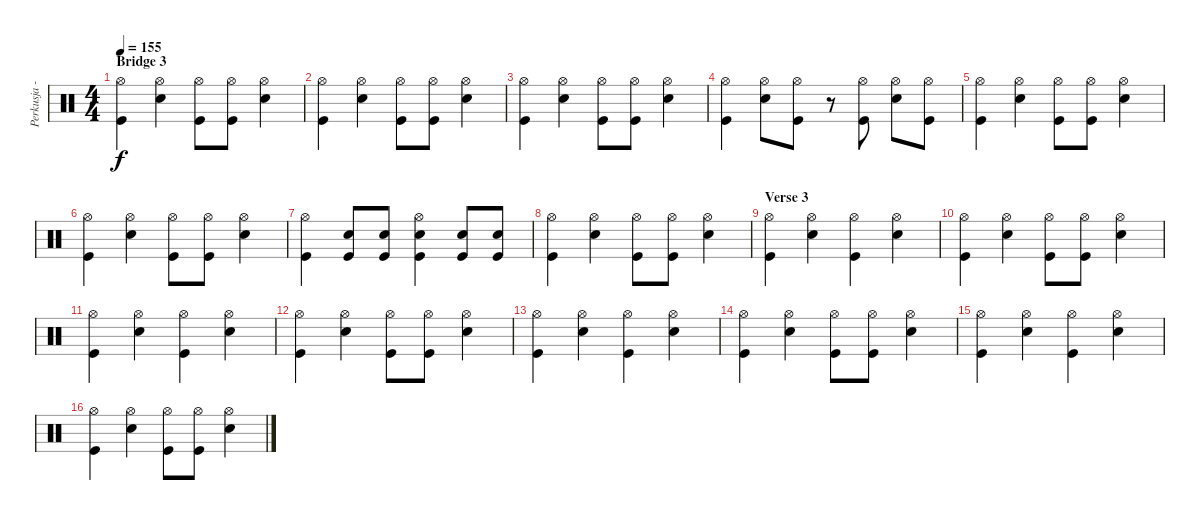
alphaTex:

\track ("Perkusja - Mielony" "Perkusja -") {instrument percussion}
\staff {score}
\articulation defaults
\ts (4 4)
\section ("" "Bridge 3")
\tempo 155
\clef neutral
\ks c
("Hi-Hat (open)" "Kick (hit)").4{dy f} ("Snare (hit) 2" "Hi-Hat (open)").4 ("Hi-Hat (open)" "Kick (hit)").8 ("Hi-Hat (open)" "Kick (hit)").8 ("Snare (hit) 2" "Hi-Hat (open)").4 |
("Hi-Hat (open)" "Kick (hit)").4 ("Snare (hit) 2" "Hi-Hat (open)").4 ("Hi-Hat (open)" "Kick (hit)").8 ("Hi-Hat (open)" "Kick (hit)").8 ("Snare (hit) 2" "Hi-Hat (open)").4 |
("Hi-Hat (open)" "Kick (hit)").4 ("Snare (hit) 2" "Hi-Hat (open)").4 ("Hi-Hat (open)" "Kick (hit)").8 ("Hi-Hat (open)" "Kick (hit)").8 ("Snare (hit) 2" "Hi-Hat (open)").4 |
("Hi-Hat (open)" "Kick (hit)").4 ("Snare (hit) 2" "Hi-Hat (open)").8 ("Hi-Hat (open)" "Kick (hit)").8 r.8 ("Hi-Hat (open)" "Kick (hit)").8 ("Snare (hit) 2" "Hi-Hat (open)").8 ("Hi-Hat (open)" "Kick (hit)").8 |
("Hi-Hat (open)" "Kick (hit)").4 ("Snare (hit) 2" "Hi-Hat (open)").4 ("Hi-Hat (open)" "Kick (hit)").8 ("Hi-Hat (open)" "Kick (hit)").8 ("Snare (hit) 2" "Hi-Hat (open)").4 |
("Hi-Hat (open)" "Kick (hit)").4 ("Snare (hit) 2" "Hi-Hat (open)").4 ("Hi-Hat (open)" "Kick (hit)").8 ("Hi-Hat (open)" "Kick (hit)").8 ("Snare (hit) 2" "Hi-Hat (open)").4 |
("Hi-Hat (open)" "Kick (hit)").4 ("Snare (hit) 2" "Kick (hit)").8 ("Snare (hit) 2" "Kick (hit)").8 ("Snare (hit) 2" "Hi-Hat (open)" "Kick (hit)").4 ("Snare (hit) 2" "Kick (hit)").8 ("Snare (hit) 2" "Kick (hit)").8 |
("Hi-Hat (open)" "Kick (hit)").4 ("Snare (hit) 2" "Hi-Hat (open)").4 ("Hi-Hat (open)" "Kick (hit)").8 ("Hi-Hat (open)" "Kick (hit)").8 ("Snare (hit) 2" "Hi-Hat (open)").4 |
\section ("" "Verse 3")
("Hi-Hat (open)" "Kick (hit)").4 ("Snare (hit) 2" "Hi-Hat (open)").4 ("Hi-Hat (open)" "Kick (hit)").4 ("Snare (hit) 2" "Hi-Hat (open)").4 |
("Hi-Hat (open)" "Kick (hit)").4 ("Snare (hit) 2" "Hi-Hat (open)").4 ("Hi-Hat (open)" "Kick (hit)").8 ("Hi-Hat (open)" "Kick (hit)").8 ("Snare (hit) 2" "Hi-Hat (open)").4 |
("Hi-Hat (open)" "Kick (hit)").4 ("Snare (hit) 2" "Hi-Hat (open)").4 ("Hi-Hat (open)" "Kick (hit)").4 ("Snare (hit) 2" "Hi-Hat (open)").4 |
("Hi-Hat (open)" "Kick (hit)").4 ("Snare (hit) 2" "Hi-Hat (open)").4 ("Hi-Hat (open)" "Kick (hit)").8 ("Hi-Hat (open)" "Kick (hit)").8 ("Snare (hit) 2" "Hi-Hat (open)").4 |
("Hi-Hat (open)" "Kick (hit)").4 ("Snare (hit) 2" "Hi-Hat (open)").4 ("Hi-Hat (open)" "Kick (hit)").4 ("Snare (hit) 2" "Hi-Hat (open)").4 |
("Hi-Hat (open)" "Kick (hit)").4 ("Snare (hit) 2" "Hi-Hat (open)").4 ("Hi-Hat (open)" "Kick (hit)").8 ("Hi-Hat (open)" "Kick (hit)").8 ("Snare (hit) 2" "Hi-Hat (open)").4 |
("Hi-Hat (open)" "Kick (hit)").4 ("Snare (hit) 2" "Hi-Hat (open)").4 ("Hi-Hat (open)" "Kick (hit)").4 ("Snare (hit) 2" "Hi-Hat (open)").4 |
("Hi-Hat (open)" "Kick (hit)").4 ("Snare (hit) 2" "Hi-Hat (open)").4 ("Hi-Hat (open)" "Kick (hit)").8 ("Hi-Hat (open)" "Kick (hit)").8 ("Snare (hit) 2" "Hi-Hat (open)").4
